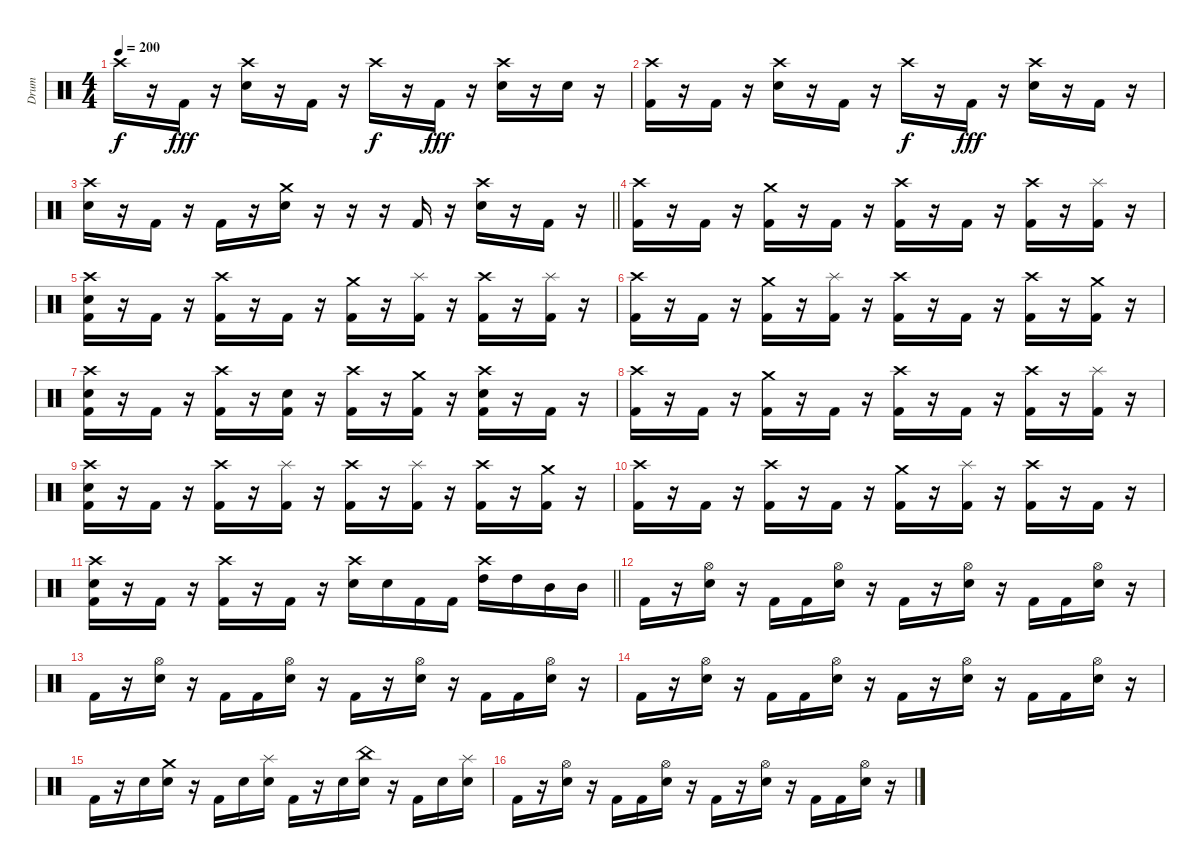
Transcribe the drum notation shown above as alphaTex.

\track ("Drum" "Drum") {instrument percussion}
\staff {score}
\articulation defaults
\ts (4 4)
\tempo 200
\clef neutral
\ks c "Crash high (hit)".16{dy f}
r.16 "Kick (hit) 2".16{dy fff} r.16 ("Crash high (hit)" "Electric Snare (hit)").16 r.16 "Kick (hit) 2".16 r.16 "Crash high (hit)".16{dy f} r.16 "Kick (hit) 2".16{dy fff} r.16 ("Crash high (hit)" "Electric Snare (hit)").16 r.16 "Electric Snare (hit)".16 r.16 |
("Crash high (hit)" "Kick (hit) 2").16 r.16 "Kick (hit) 2".16 r.16 ("Crash high (hit)" "Electric Snare (hit)").16 r.16 "Kick (hit) 2".16 r.16 "Crash high (hit)".16{dy f} r.16 "Kick (hit) 2".16{dy fff} r.16 ("Crash high (hit)" "Electric Snare (hit)").16 r.16 "Kick (hit) 2".16 r.16 |
\barLineRight lightlight
("Crash high (hit)" "Electric Snare (hit)").16 r.16 "Kick (hit) 2".16 r.16 "Kick (hit) 2".16 r.16 ("Crash medium (hit)" "Electric Snare (hit)").16 r.16 r.16 r.16 "Kick (hit) 2".16 r.16 ("Crash high (hit)" "Electric Snare (hit)").16 r.16 "Kick (hit) 2".16 r.16 |
\section ("" "")
("Crash high (hit)" "Kick (hit) 2").16 r.16 "Kick (hit) 2".16 r.16 ("Crash medium (hit)" "Kick (hit) 2").16 r.16 "Kick (hit) 2".16 r.16 ("Crash high (hit)" "Kick (hit) 2").16 r.16 "Kick (hit) 2".16 r.16 ("Crash high (hit)" "Kick (hit) 2").16 r.16 ("Splash (hit)" "Kick (hit) 2").16 r.16 |
("Crash high (hit)" "Electric Snare (hit)" "Kick (hit) 2").16 r.16 "Kick (hit) 2".16 r.16 ("Crash high (hit)" "Kick (hit) 2").16 r.16 "Kick (hit) 2".16 r.16 ("Crash medium (hit)" "Kick (hit) 2").16 r.16 ("Splash (hit)" "Kick (hit) 2").16 r.16 ("Crash high (hit)" "Kick (hit) 2").16 r.16 ("Splash (hit)" "Kick (hit) 2").16 r.16 |
("Crash high (hit)" "Kick (hit) 2").16 r.16 "Kick (hit) 2".16 r.16 ("Crash medium (hit)" "Kick (hit) 2").16 r.16 ("Splash (hit)" "Kick (hit) 2").16 r.16 ("Crash high (hit)" "Kick (hit) 2").16 r.16 "Kick (hit) 2".16 r.16 ("Crash high (hit)" "Kick (hit) 2").16 r.16 ("Crash medium (hit)" "Kick (hit) 2").16 r.16 |
("Crash high (hit)" "Electric Snare (hit)" "Kick (hit) 2").16 r.16 "Kick (hit) 2".16 r.16 ("Crash high (hit)" "Kick (hit) 2").16 r.16 ("Electric Snare (hit)" "Kick (hit) 2").16 r.16 ("Crash high (hit)" "Kick (hit) 2").16 r.16 ("Crash medium (hit)" "Kick (hit) 2").16 r.16 ("Crash high (hit)" "Electric Snare (hit)" "Kick (hit) 2").16 r.16 "Kick (hit) 2".16 r.16 |
("Crash high (hit)" "Kick (hit) 2").16 r.16 "Kick (hit) 2".16 r.16 ("Crash medium (hit)" "Kick (hit) 2").16 r.16 "Kick (hit) 2".16 r.16 ("Crash high (hit)" "Kick (hit) 2").16 r.16 "Kick (hit) 2".16 r.16 ("Crash high (hit)" "Kick (hit) 2").16 r.16 ("Splash (hit)" "Kick (hit) 2").16 r.16 |
("Crash high (hit)" "Electric Snare (hit)" "Kick (hit) 2").16 r.16 "Kick (hit) 2".16 r.16 ("Crash high (hit)" "Kick (hit) 2").16 r.16 ("Splash (hit)" "Kick (hit) 2").16 r.16 ("Crash high (hit)" "Kick (hit) 2").16 r.16 ("Splash (hit)" "Kick (hit) 2").16 r.16 ("Crash high (hit)" "Kick (hit) 2").16 r.16 ("Crash medium (hit)" "Kick (hit) 2").16 r.16 |
("Crash high (hit)" "Kick (hit) 2").16 r.16 "Kick (hit) 2".16 r.16 ("Crash high (hit)" "Kick (hit) 2").16 r.16 "Kick (hit) 2".16 r.16 ("Crash medium (hit)" "Kick (hit) 2").16 r.16 ("Splash (hit)" "Kick (hit) 2").16 r.16 ("Crash high (hit)" "Kick (hit) 2").16 r.16 "Kick (hit) 2".16 r.16 |
\barLineRight lightlight
("Crash high (hit)" "Electric Snare (hit)" "Kick (hit) 2").16 r.16 "Kick (hit) 2".16 r.16 ("Crash high (hit)" "Kick (hit) 2").16 r.16 "Kick (hit) 2".16 r.16 ("Crash high (hit)" "Electric Snare (hit)").16 "Electric Snare (hit)".16 "Kick (hit) 2".16 "Kick (hit) 2".16 ("Crash high (hit)" "High Tom (hit)").16 "High Tom (hit)".16 "Mid Tom (hit)".16 "Mid Tom (hit)".16 |
\section ("" "")
"Kick (hit) 2".16 r.16 ("Hi-Hat (open)" "Electric Snare (hit)").16 r.16 "Kick (hit) 2".16 "Kick (hit) 2".16 ("Hi-Hat (open)" "Electric Snare (hit)").16 r.16 "Kick (hit) 2".16 r.16 ("Hi-Hat (open)" "Electric Snare (hit)").16 r.16 "Kick (hit) 2".16 "Kick (hit) 2".16 ("Hi-Hat (open)" "Electric Snare (hit)").16 r.16 |
"Kick (hit) 2".16 r.16 ("Hi-Hat (open)" "Electric Snare (hit)").16 r.16 "Kick (hit) 2".16 "Kick (hit) 2".16 ("Hi-Hat (open)" "Electric Snare (hit)").16 r.16 "Kick (hit) 2".16 r.16 ("Hi-Hat (open)" "Electric Snare (hit)").16 r.16 "Kick (hit) 2".16 "Kick (hit) 2".16 ("Hi-Hat (open)" "Electric Snare (hit)").16 r.16 |
"Kick (hit) 2".16 r.16 ("Hi-Hat (open)" "Electric Snare (hit)").16 r.16 "Kick (hit) 2".16 "Kick (hit) 2".16 ("Hi-Hat (open)" "Electric Snare (hit)").16 r.16 "Kick (hit) 2".16 r.16 ("Hi-Hat (open)" "Electric Snare (hit)").16 r.16 "Kick (hit) 2".16 "Kick (hit) 2".16 ("Hi-Hat (open)" "Electric Snare (hit)").16 r.16 |
"Kick (hit) 2".16 r.16 "Electric Snare (hit)".16 ("Crash medium (hit)" "Electric Snare (hit)").16 r.16 "Kick (hit) 2".16 "Electric Snare (hit)".16 ("Splash (hit)" "Electric Snare (hit)").16 "Kick (hit) 2".16 r.16 "Electric Snare (hit)".16 ("China (hit)" "Electric Snare (hit)").16 r.16 "Kick (hit) 2".16 "Electric Snare (hit)".16 ("Splash (hit)" "Electric Snare (hit)").16 |
"Kick (hit) 2".16 r.16 ("Hi-Hat (open)" "Electric Snare (hit)").16 r.16 "Kick (hit) 2".16 "Kick (hit) 2".16 ("Hi-Hat (open)" "Electric Snare (hit)").16 r.16 "Kick (hit) 2".16 r.16 ("Hi-Hat (open)" "Electric Snare (hit)").16 r.16 "Kick (hit) 2".16 "Kick (hit) 2".16 ("Hi-Hat (open)" "Electric Snare (hit)").16 r.16
